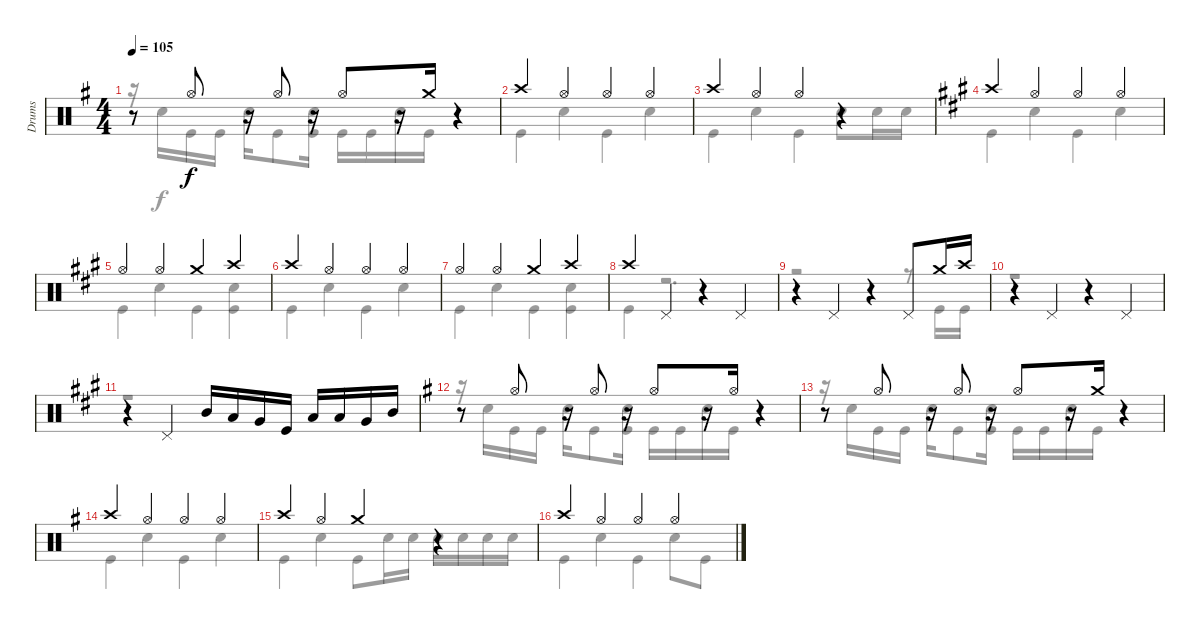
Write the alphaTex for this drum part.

\track ("Drums" "Drums") {instrument percussion}
\staff {score}
\articulation defaults
\voice
\ts (4 4)
\tempo 105
\clef neutral
\ks eminor
r.8{dy f} "Hi-Hat (open)".8 r.16 "Hi-Hat (open)".8 r.16 "Hi-Hat (open)".8 r.16 "Crash medium (hit)".16 r.4 |
"Crash high (hit)".4 "Hi-Hat (open)".4 "Hi-Hat (open)".4 "Hi-Hat (open)".4 |
"Crash high (hit)".4 "Hi-Hat (open)".4 "Hi-Hat (open)".4 r.4 |
\ks f#minor "Crash high (hit)".4 "Hi-Hat (open)".4 "Hi-Hat (open)".4 "Hi-Hat (open)".4
|
"Hi-Hat (open)".4 "Hi-Hat (open)".4 "Crash medium (hit)".4 "Crash high (hit)".4 |
"Crash high (hit)".4 "Hi-Hat (open)".4 "Hi-Hat (open)".4 "Hi-Hat (open)".4 |
"Hi-Hat (open)".4 "Hi-Hat (open)".4 "Crash medium (hit)".4 "Crash high (hit)".4 |
"Crash high (hit)".4 "Pedal Hi-Hat (hit)".4 r.4 "Pedal Hi-Hat (hit)".4 |
r.4 "Pedal Hi-Hat (hit)".4 r.4 "Pedal Hi-Hat (hit)".8 "Crash medium (hit)".16 "Crash high (hit)".16 |
r.4 "Pedal Hi-Hat (hit)".4 r.4 "Pedal Hi-Hat (hit)".4 |
r.4 "Pedal Hi-Hat (hit)".4 "Mid Tom (hit)".16 "Low Tom (hit)".16 "Very Low Tom (hit)".16 "Kick (hit)".16 "Low Tom (hit)".16 "Low Tom (hit)".16 "Very Low Tom (hit)".16 "Mid Tom (hit)".16 |
\ks eminor
r.8 "Hi-Hat (open)".8 r.16 "Hi-Hat (open)".8 r.16 "Hi-Hat (open)".8 r.16 "Hi-Hat (open)".16 r.4 |
r.8 "Hi-Hat (open)".8 r.16 "Hi-Hat (open)".8 r.16 "Hi-Hat (open)".8 r.16 "Crash medium (hit)".16 r.4 |
"Crash high (hit)".4 "Hi-Hat (open)".4 "Hi-Hat (open)".4 "Hi-Hat (open)".4 |
"Crash high (hit)".4 "Hi-Hat (open)".4 "Crash medium (hit)".4 r.4 |
"Crash high (hit)".4 "Hi-Hat (open)".4 "Hi-Hat (open)".4 "Hi-Hat (open)".4
\voice
\clef neutral
\ottava regular
\simile none
\ks eminor
r.16{dy f} "Snare (hit) 2".16 "Kick (hit)".16 "Kick (hit)".16 "Snare (hit) 2".16 "Kick (hit)".8 ("Snare (hit) 2" "Kick (hit)").16 "Kick (hit)".16 "Kick (hit)".16 "Snare (hit) 2".16 "Kick (hit)".16 r.4 |
"Kick (hit)".4 "Snare (hit) 2".4 "Kick (hit)".4 "Snare (hit) 2".4 |
"Kick (hit)".4 "Snare (hit) 2".4 "Kick (hit)".4 "Snare (hit) 2".8 "Snare (hit) 2".16 "Snare (hit) 2".16 |
\ks f#minor "Kick (hit)".4 "Snare (hit) 2".4 "Kick (hit)".4 "Snare (hit) 2".4
|
"Kick (hit)".4 "Snare (hit) 2".4 "Kick (hit)".4 ("Snare (hit) 2" "Kick (hit)").4 |
"Kick (hit)".4 "Snare (hit) 2".4 "Kick (hit)".4 "Snare (hit) 2".4 |
"Kick (hit)".4 "Snare (hit) 2".4 "Kick (hit)".4 ("Snare (hit) 2" "Kick (hit)").4 |
"Kick (hit)".4 r.2{d} |
r.2 r.4 r.8 "Kick (hit)".16 "Kick (hit)".16 |
r.1 |
r.1 |
\ks eminor
r.16 "Snare (hit) 2".16 "Kick (hit)".16 "Kick (hit)".16 "Snare (hit) 2".16 "Kick (hit)".8 ("Snare (hit) 2" "Kick (hit)").16 "Kick (hit)".16 "Kick (hit)".16 "Snare (hit) 2".16 "Kick (hit)".16 r.4 |
r.16 "Snare (hit) 2".16 "Kick (hit)".16 "Kick (hit)".16 "Snare (hit) 2".16 "Kick (hit)".8 ("Snare (hit) 2" "Kick (hit)").16 "Kick (hit)".16 "Kick (hit)".16 "Snare (hit) 2".16 "Kick (hit)".16 r.4 |
"Kick (hit)".4 "Snare (hit) 2".4 "Kick (hit)".4 "Snare (hit) 2".4 |
"Kick (hit)".4 "Snare (hit) 2".4 "Kick (hit)".8 "Snare (hit) 2".16 "Snare (hit) 2".16 "Snare (hit) 2".16 "Snare (hit) 2".16 "Snare (hit) 2".16 "Snare (hit) 2".16 |
"Kick (hit)".4 "Snare (hit) 2".4 "Kick (hit)".4 "Snare (hit) 2".8 "Kick (hit)".8
